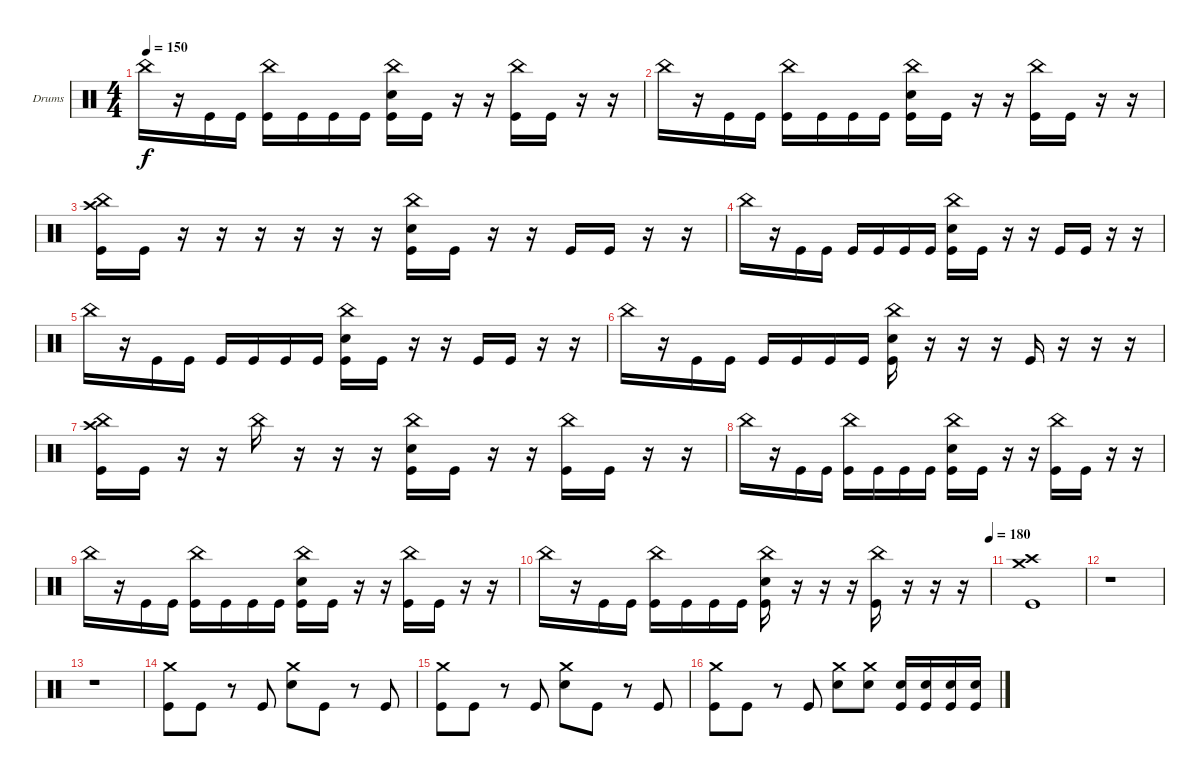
\bracketExtendMode groupsimilarinstruments
\firstSystemTrackNameOrientation horizontal
\otherSystemsTrackNameOrientation horizontal
\track ("Drumkit" "Drums") {instrument percussion}
\staff {score}
\articulation defaults
\ts (4 4)
\tempo 150
\clef neutral
\ks c "China (hit)".16{dy f}
r.16 "Kick (hit)".16 "Kick (hit)".16 ("China (hit)" "Kick (hit)").16 "Kick (hit)".16 "Kick (hit)".16 "Kick (hit)".16 ("China (hit)" "Snare (hit) 2" "Kick (hit)").16 "Kick (hit)".16 r.16 r.16 ("China (hit)" "Kick (hit)").16 "Kick (hit)".16 r.16 r.16 |
"China (hit)".16 r.16 "Kick (hit)".16 "Kick (hit)".16 ("China (hit)" "Kick (hit)").16 "Kick (hit)".16 "Kick (hit)".16 "Kick (hit)".16 ("China (hit)" "Snare (hit) 2" "Kick (hit)").16 "Kick (hit)".16 r.16 r.16 ("China (hit)" "Kick (hit)").16 "Kick (hit)".16 r.16 r.16 |
("Crash high (hit)" "China (hit)" "Kick (hit)").16 "Kick (hit)".16 r.16 r.16 r.16 r.16 r.16 r.16 ("China (hit)" "Snare (hit) 2" "Kick (hit)").16 "Kick (hit)".16 r.16 r.16 "Kick (hit)".16 "Kick (hit)".16 r.16 r.16 |
"China (hit)".16 r.16 "Kick (hit)".16 "Kick (hit)".16 "Kick (hit)".16 "Kick (hit)".16 "Kick (hit)".16 "Kick (hit)".16 ("China (hit)" "Snare (hit) 2" "Kick (hit)").16 "Kick (hit)".16 r.16 r.16 "Kick (hit)".16 "Kick (hit)".16 r.16 r.16 |
"China (hit)".16 r.16 "Kick (hit)".16 "Kick (hit)".16 "Kick (hit)".16 "Kick (hit)".16 "Kick (hit)".16 "Kick (hit)".16 ("China (hit)" "Snare (hit) 2" "Kick (hit)").16 "Kick (hit)".16 r.16 r.16 "Kick (hit)".16 "Kick (hit)".16 r.16 r.16 |
"China (hit)".16 r.16 "Kick (hit)".16 "Kick (hit)".16 "Kick (hit)".16 "Kick (hit)".16 "Kick (hit)".16 "Kick (hit)".16 ("China (hit)" "Snare (hit) 2" "Kick (hit)").16 r.16 r.16 r.16 "Kick (hit)".16 r.16 r.16 r.16 |
("Crash high (hit)" "China (hit)" "Kick (hit)").16 "Kick (hit)".16 r.16 r.16 "China (hit)".16 r.16 r.16 r.16 ("China (hit)" "Snare (hit) 2" "Kick (hit)").16 "Kick (hit)".16 r.16 r.16 ("China (hit)" "Kick (hit)").16 "Kick (hit)".16 r.16 r.16 |
"China (hit)".16 r.16 "Kick (hit)".16 "Kick (hit)".16 ("China (hit)" "Kick (hit)").16 "Kick (hit)".16 "Kick (hit)".16 "Kick (hit)".16 ("China (hit)" "Snare (hit) 2" "Kick (hit)").16 "Kick (hit)".16 r.16 r.16 ("China (hit)" "Kick (hit)").16 "Kick (hit)".16 r.16 r.16 |
"China (hit)".16 r.16 "Kick (hit)".16 "Kick (hit)".16 ("China (hit)" "Kick (hit)").16 "Kick (hit)".16 "Kick (hit)".16 "Kick (hit)".16 ("China (hit)" "Snare (hit) 2" "Kick (hit)").16 "Kick (hit)".16 r.16 r.16 ("China (hit)" "Kick (hit)").16 "Kick (hit)".16 r.16 r.16 |
\tempo (180 1)
"China (hit)".16 r.16 "Kick (hit)".16 "Kick (hit)".16 ("China (hit)" "Kick (hit)").16 "Kick (hit)".16 "Kick (hit)".16 "Kick (hit)".16 ("China (hit)" "Snare (hit) 2" "Kick (hit)").16 r.16 r.16 r.16 ("China (hit)" "Kick (hit)").16 r.16 r.16 r.16 |
("Crash high (hit)" "Crash medium (hit)" "Kick (hit)").1 |
r.1 |
r.1 |
("Crash medium (hit)" "Kick (hit)").8 "Kick (hit)".8 r.8 "Kick (hit)".8 ("Crash medium (hit)" "Snare (hit) 2").8 "Kick (hit)".8 r.8 "Kick (hit)".8 |
("Crash medium (hit)" "Kick (hit)").8 "Kick (hit)".8 r.8 "Kick (hit)".8 ("Crash medium (hit)" "Snare (hit) 2").8 "Kick (hit)".8 r.8 "Kick (hit)".8 |
("Crash medium (hit)" "Kick (hit)").8 "Kick (hit)".8 r.8 "Kick (hit)".8 ("Crash medium (hit)" "Snare (hit) 2").8 ("Crash medium (hit)" "Snare (hit) 2").8 ("Snare (hit) 2" "Kick (hit)").16 ("Snare (hit) 2" "Kick (hit)").16 ("Snare (hit) 2" "Kick (hit)").16 ("Snare (hit) 2" "Kick (hit)").16
